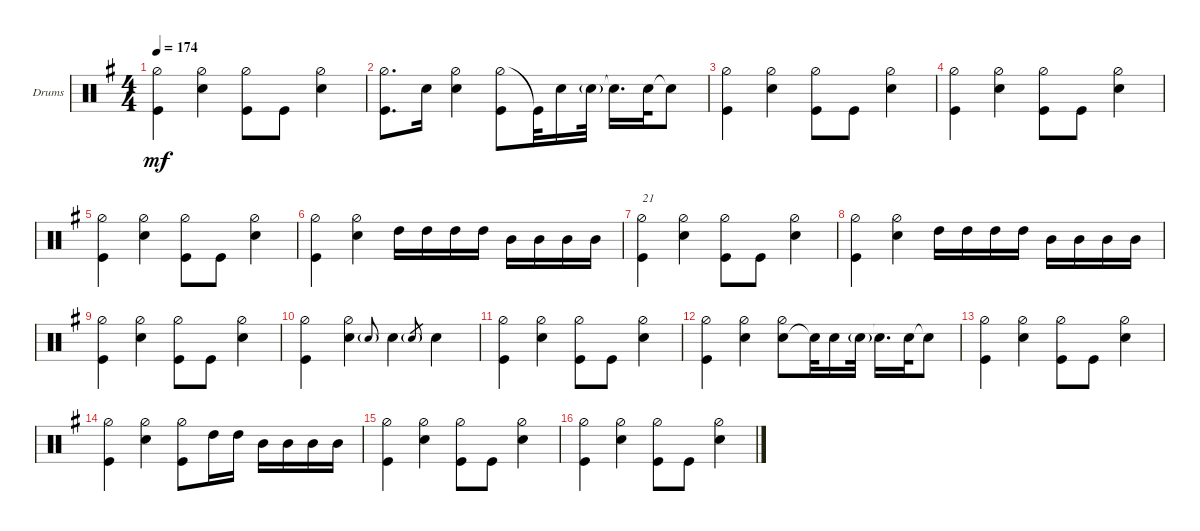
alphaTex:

\bracketExtendMode groupsimilarinstruments
\firstSystemTrackNameOrientation horizontal
\otherSystemsTrackNameOrientation horizontal
\track ("Drumkit" "Drums") {instrument percussion}
\staff {score}
\articulation defaults
\ts (4 4)
\tempo 174
\clef neutral
\scale
0.333333
\ks eminor
("Kick (hit)" "Hi-Hat (half)").4{dy mf} ("Snare (hit) 2" "Hi-Hat (half)").4 ("Kick (hit)" "Hi-Hat (half)").8 "Kick (hit)".8 ("Snare (hit) 2" "Hi-Hat (half)").4 |
\scale
0.333333 ("Kick (hit)" "Hi-Hat (half)").8{d} "Snare (hit) 2".16 ("Snare (hit) 2" "Hi-Hat (half)").4 ("Hi-Hat (half)" "Kick (hit)").8 "Kick (hit)"{t}.32 "Snare (hit) 2".16 "Snare (hit) 2"{g}.32 "Snare (hit) 2"{t}.16{d} "Snare (hit) 2".32 "Snare (hit) 2"{t}.8 |
\scale
0.333333 ("Kick (hit)" "Hi-Hat (half)").4 ("Snare (hit) 2" "Hi-Hat (half)").4 ("Kick (hit)" "Hi-Hat (half)").8 "Kick (hit)".8 ("Snare (hit) 2" "Hi-Hat (half)").4 |
\scale
0.333333 ("Kick (hit)" "Hi-Hat (half)").4 ("Snare (hit) 2" "Hi-Hat (half)").4 ("Kick (hit)" "Hi-Hat (half)").8 "Kick (hit)".8 ("Snare (hit) 2" "Hi-Hat (half)").4 |
\scale
0.333333 ("Kick (hit)" "Hi-Hat (half)").4 ("Snare (hit) 2" "Hi-Hat (half)").4 ("Kick (hit)" "Hi-Hat (half)").8 "Kick (hit)".8 ("Snare (hit) 2" "Hi-Hat (half)").4 |
\scale
0.333333 ("Kick (hit)" "Hi-Hat (half)").4 ("Snare (hit) 2" "Hi-Hat (half)").4 "High Tom (hit)".16 "High Tom (hit)".16 "High Tom (hit)".16 "High Tom (hit)".16 "Mid Tom (hit)".16 "Mid Tom (hit)".16 "Mid Tom (hit)".16 "Mid Tom (hit)".16 |
\scale
0.333333 ("Kick (hit)" "Hi-Hat (half)").4{txt "21"} ("Snare (hit) 2" "Hi-Hat (half)").4 ("Kick (hit)" "Hi-Hat (half)").8 "Kick (hit)".8 ("Snare (hit) 2" "Hi-Hat (half)").4 |
\scale
0.333333 ("Kick (hit)" "Hi-Hat (half)").4 ("Snare (hit) 2" "Hi-Hat (half)").4 "High Tom (hit)".16 "High Tom (hit)".16 "High Tom (hit)".16 "High Tom (hit)".16 "Mid Tom (hit)".16 "Mid Tom (hit)".16 "Mid Tom (hit)".16 "Mid Tom (hit)".16 |
\scale
0.333333 ("Kick (hit)" "Hi-Hat (half)").4 ("Snare (hit) 2" "Hi-Hat (half)").4 ("Kick (hit)" "Hi-Hat (half)").8 "Kick (hit)".8 ("Snare (hit) 2" "Hi-Hat (half)").4 |
\scale
0.333333 ("Kick (hit)" "Hi-Hat (half)").4 ("Snare (hit) 2" "Hi-Hat (half)").4 "Snare (hit) 2"{g}.8{gr onbeat} "Snare (hit) 2".4 "Snare (hit) 2"{g}.8{gr} "Snare (hit) 2".4 |
\scale
0.333333 ("Kick (hit)" "Hi-Hat (half)").4 ("Snare (hit) 2" "Hi-Hat (half)").4 ("Kick (hit)" "Hi-Hat (half)").8 "Kick (hit)".8 ("Snare (hit) 2" "Hi-Hat (half)").4 |
\scale
0.333333 ("Kick (hit)" "Hi-Hat (half)").4 ("Snare (hit) 2" "Hi-Hat (half)").4 ("Snare (hit) 2" "Hi-Hat (half)").8 "Snare (hit) 2"{t}.32 "Snare (hit) 2".16 "Snare (hit) 2"{g}.32 "Snare (hit) 2"{t}.16{d} "Snare (hit) 2".32 "Snare (hit) 2"{t}.8 |
\scale
0.333333 ("Kick (hit)" "Hi-Hat (half)").4 ("Snare (hit) 2" "Hi-Hat (half)").4 ("Kick (hit)" "Hi-Hat (half)").8 "Kick (hit)".8 ("Snare (hit) 2" "Hi-Hat (half)").4 |
\scale
0.333333 ("Kick (hit)" "Hi-Hat (half)").4 ("Snare (hit) 2" "Hi-Hat (half)").4 ("Kick (hit)" "Hi-Hat (half)").8 "High Tom (hit)".16 "High Tom (hit)".16 "Mid Tom (hit)".16 "Mid Tom (hit)".16 "Mid Tom (hit)".16 "Mid Tom (hit)".16 |
\scale
0.333333 ("Kick (hit)" "Hi-Hat (half)").4 ("Snare (hit) 2" "Hi-Hat (half)").4 ("Kick (hit)" "Hi-Hat (half)").8 "Kick (hit)".8 ("Snare (hit) 2" "Hi-Hat (half)").4 |
\scale
0.333333 ("Kick (hit)" "Hi-Hat (half)").4 ("Snare (hit) 2" "Hi-Hat (half)").4 ("Kick (hit)" "Hi-Hat (half)").8 "Kick (hit)".8 ("Snare (hit) 2" "Hi-Hat (half)").4
